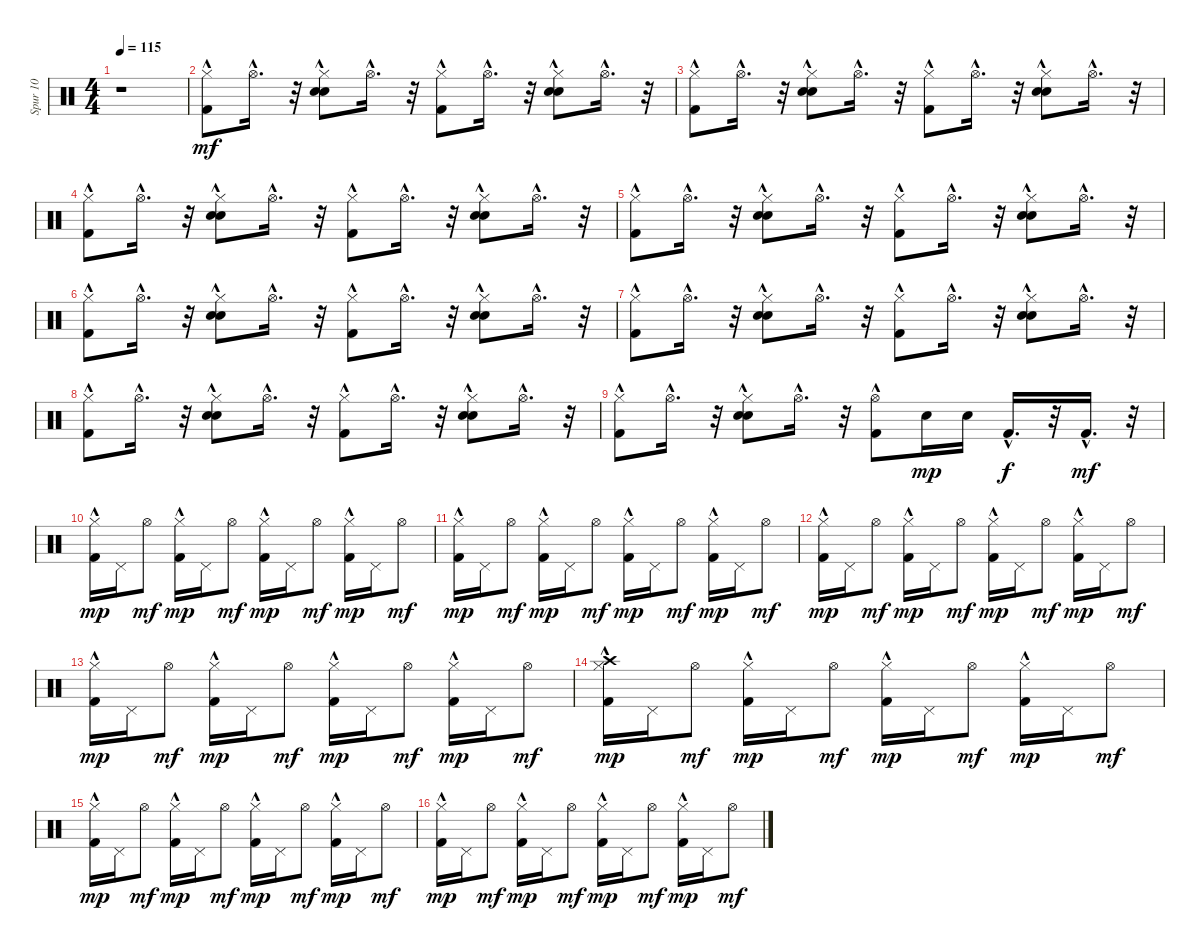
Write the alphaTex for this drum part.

\track ("Spur 10" "Spur 10") {instrument percussion}
\staff {score}
\articulation defaults
\ts (4 4)
\tempo 115
\clef neutral
\ks c
r.1{dy mf} |
("Hi-Hat (closed)"{hac} "Kick (hit) 2"{hac}).8 "Hi-Hat (open)"{hac}.16{d} r.32 ("Hi-Hat (closed)"{hac} "Hand Clap (hit)"{hac} "Snare (hit) 2"{hac}).8 "Hi-Hat (open)"{hac}.16{d} r.32 ("Hi-Hat (closed)"{hac} "Kick (hit) 2"{hac}).8 "Hi-Hat (open)"{hac}.16{d} r.32 ("Hi-Hat (closed)"{hac} "Snare (hit) 2"{hac} "Hand Clap (hit)"{hac}).8 "Hi-Hat (open)"{hac}.16{d} r.32 |
("Hi-Hat (closed)"{hac} "Kick (hit) 2"{hac}).8 "Hi-Hat (open)"{hac}.16{d} r.32 ("Hi-Hat (closed)"{hac} "Snare (hit) 2"{hac} "Hand Clap (hit)"{hac}).8 "Hi-Hat (open)"{hac}.16{d} r.32 ("Hi-Hat (closed)"{hac} "Kick (hit) 2"{hac}).8 "Hi-Hat (open)"{hac}.16{d} r.32 ("Hi-Hat (closed)"{hac} "Snare (hit) 2"{hac} "Hand Clap (hit)"{hac}).8 "Hi-Hat (open)"{hac}.16{d} r.32 |
("Hi-Hat (closed)"{hac} "Kick (hit) 2"{hac}).8 "Hi-Hat (open)"{hac}.16{d} r.32 ("Hi-Hat (closed)"{hac} "Hand Clap (hit)"{hac} "Snare (hit) 2"{hac}).8 "Hi-Hat (open)"{hac}.16{d} r.32 ("Hi-Hat (closed)"{hac} "Kick (hit) 2"{hac}).8 "Hi-Hat (open)"{hac}.16{d} r.32 ("Hi-Hat (closed)"{hac} "Snare (hit) 2"{hac} "Hand Clap (hit)"{hac}).8 "Hi-Hat (open)"{hac}.16{d} r.32 |
("Hi-Hat (closed)"{hac} "Kick (hit) 2"{hac}).8 "Hi-Hat (open)"{hac}.16{d} r.32 ("Hi-Hat (closed)"{hac} "Snare (hit) 2"{hac} "Hand Clap (hit)"{hac}).8 "Hi-Hat (open)"{hac}.16{d} r.32 ("Hi-Hat (closed)"{hac} "Kick (hit) 2"{hac}).8 "Hi-Hat (open)"{hac}.16{d} r.32 ("Hi-Hat (closed)"{hac} "Snare (hit) 2"{hac} "Hand Clap (hit)"{hac}).8 "Hi-Hat (open)"{hac}.16{d} r.32 |
("Hi-Hat (closed)"{hac} "Kick (hit) 2"{hac}).8 "Hi-Hat (open)"{hac}.16{d} r.32 ("Hi-Hat (closed)"{hac} "Hand Clap (hit)"{hac} "Snare (hit) 2"{hac}).8 "Hi-Hat (open)"{hac}.16{d} r.32 ("Hi-Hat (closed)"{hac} "Kick (hit) 2"{hac}).8 "Hi-Hat (open)"{hac}.16{d} r.32 ("Hi-Hat (closed)"{hac} "Snare (hit) 2"{hac} "Hand Clap (hit)"{hac}).8 "Hi-Hat (open)"{hac}.16{d} r.32 |
("Hi-Hat (closed)"{hac} "Kick (hit) 2"{hac}).8 "Hi-Hat (open)"{hac}.16{d} r.32 ("Hi-Hat (closed)"{hac} "Snare (hit) 2"{hac} "Hand Clap (hit)"{hac}).8 "Hi-Hat (open)"{hac}.16{d} r.32 ("Hi-Hat (closed)"{hac} "Kick (hit) 2"{hac}).8 "Hi-Hat (open)"{hac}.16{d} r.32 ("Hi-Hat (closed)"{hac} "Snare (hit) 2"{hac} "Hand Clap (hit)"{hac}).8 "Hi-Hat (open)"{hac}.16{d} r.32 |
("Hi-Hat (closed)"{hac} "Kick (hit) 2"{hac}).8 "Hi-Hat (open)"{hac}.16{d} r.32 ("Hi-Hat (closed)"{hac} "Hand Clap (hit)"{hac} "Snare (hit) 2"{hac}).8 "Hi-Hat (open)"{hac}.16{d} r.32 ("Hi-Hat (closed)"{hac} "Kick (hit) 2"{hac}).8 "Hi-Hat (open)"{hac}.16{d} r.32 ("Hi-Hat (closed)"{hac} "Snare (hit) 2"{hac} "Hand Clap (hit)"{hac}).8 "Hi-Hat (open)"{hac}.16{d} r.32 |
("Hi-Hat (closed)"{hac} "Kick (hit) 2"{hac}).8 "Hi-Hat (open)"{hac}.16{d} r.32 ("Hi-Hat (closed)"{hac} "Snare (hit) 2"{hac} "Hand Clap (hit)"{hac}).8 "Hi-Hat (open)"{hac}.16{d} r.32 ("Hi-Hat (open)"{hac} "Kick (hit) 2"{hac}).8 "Snare (hit) 2".16{dy mp} "Snare (hit) 2".16 "Kick (hit) 2"{hac}.16{d dy f} r.32 "Kick (hit) 2"{hac}.16{d dy mf} r.32 |
("Hi-Hat (closed)" "Kick (hit) 2"{hac}).16{dy mp} "Pedal Hi-Hat (hit)".16 "Hi-Hat (open)".8{dy mf} ("Hi-Hat (closed)" "Kick (hit) 2"{hac}).16{dy mp} "Pedal Hi-Hat (hit)".16 "Hi-Hat (open)".8{dy mf} ("Hi-Hat (closed)" "Kick (hit) 2"{hac}).16{dy mp} "Pedal Hi-Hat (hit)".16 "Hi-Hat (open)".8{dy mf} ("Hi-Hat (closed)" "Kick (hit) 2"{hac}).16{dy mp} "Pedal Hi-Hat (hit)".16 "Hi-Hat (open)".8{dy mf} |
("Hi-Hat (closed)" "Kick (hit) 2"{hac}).16{dy mp} "Pedal Hi-Hat (hit)".16 "Hi-Hat (open)".8{dy mf} ("Hi-Hat (closed)" "Kick (hit) 2"{hac}).16{dy mp} "Pedal Hi-Hat (hit)".16 "Hi-Hat (open)".8{dy mf} ("Hi-Hat (closed)" "Kick (hit) 2"{hac}).16{dy mp} "Pedal Hi-Hat (hit)".16 "Hi-Hat (open)".8{dy mf} ("Hi-Hat (closed)" "Kick (hit) 2"{hac}).16{dy mp} "Pedal Hi-Hat (hit)".16 "Hi-Hat (open)".8{dy mf} |
("Hi-Hat (closed)" "Kick (hit) 2"{hac}).16{dy mp} "Pedal Hi-Hat (hit)".16 "Hi-Hat (open)".8{dy mf} ("Hi-Hat (closed)" "Kick (hit) 2"{hac}).16{dy mp} "Pedal Hi-Hat (hit)".16 "Hi-Hat (open)".8{dy mf} ("Hi-Hat (closed)" "Kick (hit) 2"{hac}).16{dy mp} "Pedal Hi-Hat (hit)".16 "Hi-Hat (open)".8{dy mf} ("Hi-Hat (closed)" "Kick (hit) 2"{hac}).16{dy mp} "Pedal Hi-Hat (hit)".16 "Hi-Hat (open)".8{dy mf} |
("Hi-Hat (closed)" "Kick (hit) 2"{hac}).16{dy mp} "Pedal Hi-Hat (hit)".16 "Hi-Hat (open)".8{dy mf} ("Hi-Hat (closed)" "Kick (hit) 2"{hac}).16{dy mp} "Pedal Hi-Hat (hit)".16 "Hi-Hat (open)".8{dy mf} ("Hi-Hat (closed)" "Kick (hit) 2"{hac}).16{dy mp} "Pedal Hi-Hat (hit)".16 "Hi-Hat (open)".8{dy mf} ("Hi-Hat (closed)" "Kick (hit) 2"{hac}).16{dy mp} "Pedal Hi-Hat (hit)".16 "Hi-Hat (open)".8{dy mf} |
("Crash high (hit)"{hac} "Hi-Hat (closed)" "Kick (hit) 2"{hac}).16{dy mp} "Pedal Hi-Hat (hit)".16 "Hi-Hat (open)".8{dy mf} ("Hi-Hat (closed)" "Kick (hit) 2"{hac}).16{dy mp} "Pedal Hi-Hat (hit)".16 "Hi-Hat (open)".8{dy mf} ("Hi-Hat (closed)" "Kick (hit) 2"{hac}).16{dy mp} "Pedal Hi-Hat (hit)".16 "Hi-Hat (open)".8{dy mf} ("Hi-Hat (closed)" "Kick (hit) 2"{hac}).16{dy mp} "Pedal Hi-Hat (hit)".16 "Hi-Hat (open)".8{dy mf} |
("Hi-Hat (closed)" "Kick (hit) 2"{hac}).16{dy mp} "Pedal Hi-Hat (hit)".16 "Hi-Hat (open)".8{dy mf} ("Hi-Hat (closed)" "Kick (hit) 2"{hac}).16{dy mp} "Pedal Hi-Hat (hit)".16 "Hi-Hat (open)".8{dy mf} ("Hi-Hat (closed)" "Kick (hit) 2"{hac}).16{dy mp} "Pedal Hi-Hat (hit)".16 "Hi-Hat (open)".8{dy mf} ("Hi-Hat (closed)" "Kick (hit) 2"{hac}).16{dy mp} "Pedal Hi-Hat (hit)".16 "Hi-Hat (open)".8{dy mf} |
("Hi-Hat (closed)" "Kick (hit) 2"{hac}).16{dy mp} "Pedal Hi-Hat (hit)".16 "Hi-Hat (open)".8{dy mf} ("Hi-Hat (closed)" "Kick (hit) 2"{hac}).16{dy mp} "Pedal Hi-Hat (hit)".16 "Hi-Hat (open)".8{dy mf} ("Hi-Hat (closed)" "Kick (hit) 2"{hac}).16{dy mp} "Pedal Hi-Hat (hit)".16 "Hi-Hat (open)".8{dy mf} ("Hi-Hat (closed)" "Kick (hit) 2"{hac}).16{dy mp} "Pedal Hi-Hat (hit)".16 "Hi-Hat (open)".8{dy mf}
